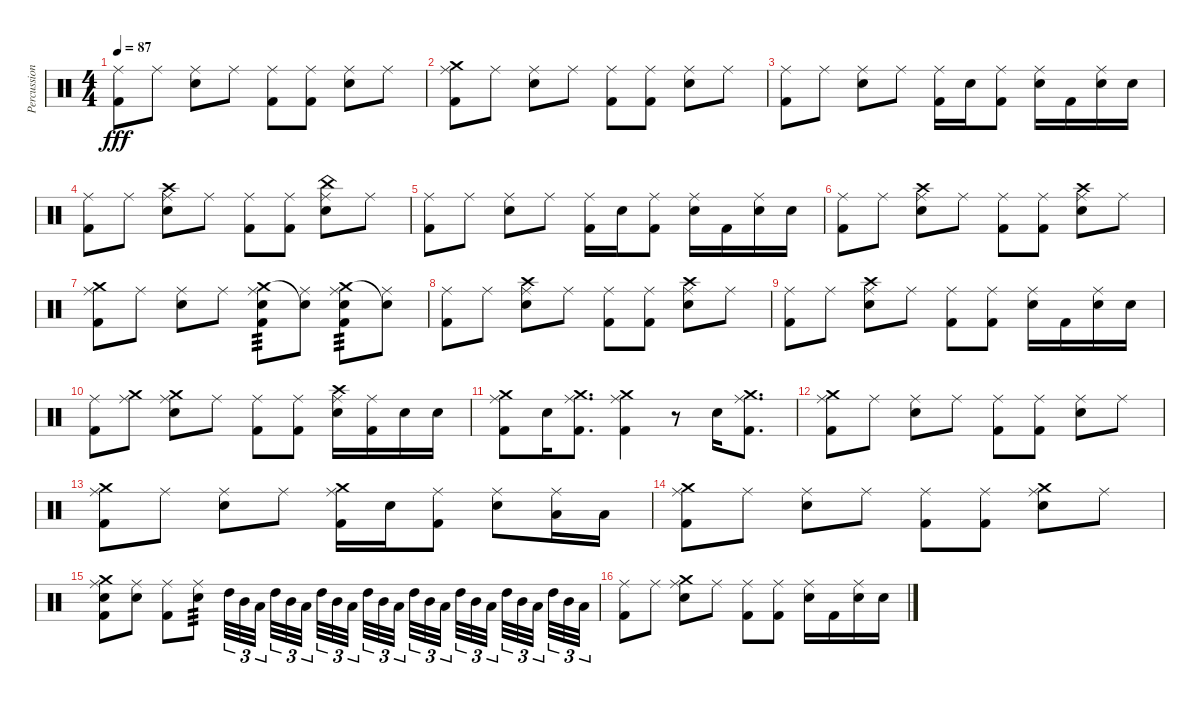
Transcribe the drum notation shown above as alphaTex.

\track ("Percussion" "Percussion") {instrument percussion}
\staff {score}
\articulation defaults
\ts (4 4)
\tempo 87
\clef neutral
\ks c
("Ride (middle)" "Kick (hit) 2").8{dy fff} "Ride (middle)".8 ("Ride (middle)" "Electric Snare (hit)").8 "Ride (middle)".8 ("Ride (middle)" "Kick (hit) 2").8 ("Ride (middle)" "Kick (hit) 2").8 ("Ride (middle)" "Electric Snare (hit)").8 "Ride (middle)".8 |
("Ride (middle)" "Crash medium (hit)" "Kick (hit) 2").8 "Ride (middle)".8 ("Ride (middle)" "Electric Snare (hit)").8 "Ride (middle)".8 ("Ride (middle)" "Kick (hit) 2").8 ("Ride (middle)" "Kick (hit) 2").8 ("Ride (middle)" "Electric Snare (hit)").8 "Ride (middle)".8 |
("Ride (middle)" "Kick (hit) 2").8 "Ride (middle)".8 ("Ride (middle)" "Electric Snare (hit)").8 "Ride (middle)".8 ("Ride (middle)" "Kick (hit) 2").16 "Electric Snare (hit)".16 ("Ride (middle)" "Kick (hit) 2").8 ("Ride (middle)" "Electric Snare (hit)").16 "Kick (hit) 2".16 ("Ride (middle)" "Electric Snare (hit)").16 "Electric Snare (hit)".16 |
("Ride (middle)" "Kick (hit) 2").8 "Ride (middle)".8 ("Ride (middle)" "Crash high (hit)" "Electric Snare (hit)").8 "Ride (middle)".8 ("Ride (middle)" "Kick (hit) 2").8 ("Ride (middle)" "Kick (hit) 2").8 ("Ride (middle)" "China (hit)" "Electric Snare (hit)").8 "Ride (middle)".8 |
("Ride (middle)" "Kick (hit) 2").8 "Ride (middle)".8 ("Ride (middle)" "Electric Snare (hit)").8 "Ride (middle)".8 ("Ride (middle)" "Kick (hit) 2").16 "Electric Snare (hit)".16 ("Ride (middle)" "Kick (hit) 2").8 ("Ride (middle)" "Electric Snare (hit)").16 "Kick (hit) 2".16 ("Ride (middle)" "Electric Snare (hit)").16 "Electric Snare (hit)".16 |
("Ride (middle)" "Kick (hit) 2").8 "Ride (middle)".8 ("Ride (middle)" "Crash high (hit)" "Electric Snare (hit)").8 "Ride (middle)".8 ("Ride (middle)" "Kick (hit) 2").8 ("Ride (middle)" "Kick (hit) 2").8 ("Ride (middle)" "Crash high (hit)" "Electric Snare (hit)").8 "Ride (middle)".8 |
("Ride (middle)" "Crash medium (hit)" "Kick (hit) 2").8 "Ride (middle)".8 ("Ride (middle)" "Electric Snare (hit)").8 "Ride (middle)".8 ("Ride (middle)" "Crash medium (hit)" "Electric Snare (hit)" "Kick (hit) 2").8{tp 3} ("Ride (middle)" "Snare (hit)"{t}).8 ("Ride (middle)" "Crash medium (hit)" "Electric Snare (hit)" "Kick (hit) 2").8{tp 3} ("Ride (middle)" "Snare (hit)"{t}).8 |
("Ride (middle)" "Kick (hit) 2").8 "Ride (middle)".8 ("Ride (middle)" "Crash high (hit)" "Electric Snare (hit)").8 "Ride (middle)".8 ("Ride (middle)" "Kick (hit) 2").8 ("Ride (middle)" "Kick (hit) 2").8 ("Ride (middle)" "Crash high (hit)" "Electric Snare (hit)").8 "Ride (middle)".8 |
("Ride (middle)" "Kick (hit) 2").8 "Ride (middle)".8 ("Ride (middle)" "Crash high (hit)" "Electric Snare (hit)").8 "Ride (middle)".8 ("Ride (middle)" "Kick (hit) 2").8 ("Ride (middle)" "Kick (hit) 2").8 ("Ride (middle)" "Electric Snare (hit)").16 "Kick (hit) 2".16 ("Ride (middle)" "Electric Snare (hit)").16 "Electric Snare (hit)".16 |
("Ride (middle)" "Kick (hit) 2").8 ("Ride (middle)" "Crash medium (hit)").8 ("Ride (middle)" "Crash medium (hit)" "Electric Snare (hit)").8 "Ride (middle)".8 ("Ride (middle)" "Kick (hit) 2").8 ("Ride (middle)" "Kick (hit) 2").8 ("Ride (middle)" "Crash high (hit)" "Electric Snare (hit)").16 ("Ride (middle)" "Kick (hit) 2").16 "Electric Snare (hit)".16 "Electric Snare (hit)".16 |
("Ride (middle)" "Crash medium (hit)" "Kick (hit) 2").8 "Electric Snare (hit)".16 ("Ride (middle)" "Crash medium (hit)" "Kick (hit) 2").8{d} ("Ride (middle)" "Crash medium (hit)" "Kick (hit) 2").4 r.8 "Electric Snare (hit)".16 ("Ride (middle)" "Crash medium (hit)" "Kick (hit) 2").8{d} |
("Ride (middle)" "Crash medium (hit)" "Kick (hit) 2").8 "Ride (middle)".8 ("Ride (middle)" "Electric Snare (hit)").8 "Ride (middle)".8 ("Ride (middle)" "Kick (hit) 2").8 ("Ride (middle)" "Kick (hit) 2").8 ("Ride (middle)" "Electric Snare (hit)").8 "Ride (middle)".8 |
("Ride (middle)" "Crash medium (hit)" "Kick (hit) 2").8 "Ride (middle)".8 ("Ride (middle)" "Electric Snare (hit)").8 "Ride (middle)".8 ("Ride (middle)" "Crash medium (hit)" "Kick (hit) 2").16 "Electric Snare (hit)".16 ("Ride (middle)" "Kick (hit) 2").8 ("Ride (middle)" "Electric Snare (hit)").8 ("Ride (middle)" "Low Tom (hit)").16 "Low Tom (hit)".16 |
("Ride (middle)" "Crash medium (hit)" "Kick (hit) 2").8 "Ride (middle)".8 ("Ride (middle)" "Electric Snare (hit)").8 "Ride (middle)".8 ("Ride (middle)" "Kick (hit) 2").8 ("Ride (middle)" "Kick (hit) 2").8 ("Ride (middle)" "Crash medium (hit)" "Electric Snare (hit)").8 "Ride (middle)".8 |
("Ride (middle)" "Crash medium (hit)" "Electric Snare (hit)" "Kick (hit) 2").8 ("Ride (middle)" "Electric Snare (hit)").8 ("Ride (middle)" "Kick (hit) 2").8 ("Ride (middle)" "Electric Snare (hit)").8{tp 3} "High Tom (hit)".32{tu (3 2)} "Mid Tom (hit)".32{tu (3 2)} "Low Tom (hit)".32{tu (3 2) beam splitsecondary} "High Tom (hit)".32{tu (3 2)} "Mid Tom (hit)".32{tu (3 2)} "Low Tom (hit)".32{tu (3 2) beam splitsecondary} "High Tom (hit)".32{tu (3 2)} "Mid Tom (hit)".32{tu (3 2)} "Low Tom (hit)".32{tu (3 2) beam splitsecondary} "High Tom (hit)".32{tu (3 2)} "Mid Tom (hit)".32{tu (3 2)} "Low Tom (hit)".32{tu (3 2)} "High Tom (hit)".32{tu (3 2)} "Mid Tom (hit)".32{tu (3 2)} "Low Tom (hit)".32{tu (3 2) beam splitsecondary} "High Tom (hit)".32{tu (3 2)} "Mid Tom (hit)".32{tu (3 2)} "Low Tom (hit)".32{tu (3 2) beam splitsecondary} "High Tom (hit)".32{tu (3 2)} "Mid Tom (hit)".32{tu (3 2)} "Low Tom (hit)".32{tu (3 2) beam splitsecondary} "High Tom (hit)".32{tu (3 2)} "Mid Tom (hit)".32{tu (3 2)} "Low Tom (hit)".32{tu (3 2)} |
("Ride (middle)" "Kick (hit) 2").8 "Ride (middle)".8 ("Ride (middle)" "Crash medium (hit)" "Electric Snare (hit)").8 "Ride (middle)".8 ("Ride (middle)" "Kick (hit) 2").8 ("Ride (middle)" "Kick (hit) 2").8 ("Ride (middle)" "Electric Snare (hit)").16 "Kick (hit) 2".16 ("Ride (middle)" "Electric Snare (hit)").16 "Electric Snare (hit)".16
